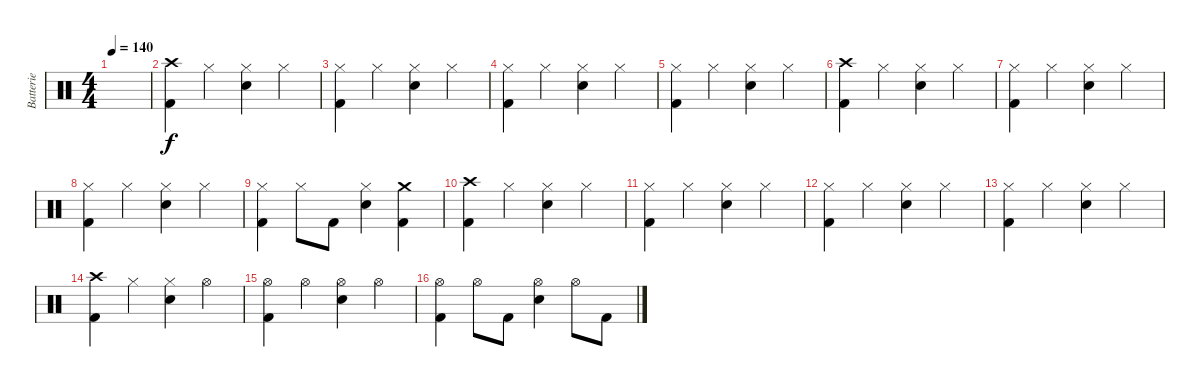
\track ("Batterie" "Batterie") {instrument percussion}
\staff {score}
\articulation defaults
\ts (4 4)
\tempo 140
\clef neutral
\ks c
|
("Crash high (hit)" "Kick (hit) 2").4 "Hi-Hat (closed)".4 ("Hi-Hat (closed)" "Electric Snare (hit)").4 "Hi-Hat (closed)".4 |
("Hi-Hat (closed)" "Kick (hit) 2").4 "Hi-Hat (closed)".4 ("Hi-Hat (closed)" "Electric Snare (hit)").4 "Hi-Hat (closed)".4 |
("Hi-Hat (closed)" "Kick (hit) 2").4 "Hi-Hat (closed)".4 ("Hi-Hat (closed)" "Electric Snare (hit)").4 "Hi-Hat (closed)".4 |
("Hi-Hat (closed)" "Kick (hit) 2").4 "Hi-Hat (closed)".4 ("Hi-Hat (closed)" "Electric Snare (hit)").4 "Hi-Hat (closed)".4 |
("Crash high (hit)" "Kick (hit) 2").4 "Hi-Hat (closed)".4 ("Hi-Hat (closed)" "Electric Snare (hit)").4 "Hi-Hat (closed)".4 |
("Hi-Hat (closed)" "Kick (hit) 2").4 "Hi-Hat (closed)".4 ("Hi-Hat (closed)" "Electric Snare (hit)").4 "Hi-Hat (closed)".4 |
("Hi-Hat (closed)" "Kick (hit) 2").4 "Hi-Hat (closed)".4 ("Hi-Hat (closed)" "Electric Snare (hit)").4 "Hi-Hat (closed)".4 |
("Hi-Hat (closed)" "Kick (hit) 2").4 "Hi-Hat (closed)".8 "Kick (hit) 2".8 ("Hi-Hat (closed)" "Electric Snare (hit)").4 ("Crash medium (hit)" "Kick (hit) 2").4 |
("Crash high (hit)" "Kick (hit) 2").4 "Hi-Hat (closed)".4 ("Hi-Hat (closed)" "Electric Snare (hit)").4 "Hi-Hat (closed)".4 |
("Hi-Hat (closed)" "Kick (hit) 2").4 "Hi-Hat (closed)".4 ("Hi-Hat (closed)" "Electric Snare (hit)").4 "Hi-Hat (closed)".4 |
("Hi-Hat (closed)" "Kick (hit) 2").4 "Hi-Hat (closed)".4 ("Hi-Hat (closed)" "Electric Snare (hit)").4 "Hi-Hat (closed)".4 |
("Hi-Hat (closed)" "Kick (hit) 2").4 "Hi-Hat (closed)".4 ("Hi-Hat (closed)" "Electric Snare (hit)").4 "Hi-Hat (closed)".4 |
("Crash high (hit)" "Kick (hit) 2").4 "Hi-Hat (closed)".4 ("Hi-Hat (closed)" "Electric Snare (hit)").4 "Hi-Hat (open)".4 |
("Hi-Hat (open)" "Kick (hit) 2").4 "Hi-Hat (open)".4 ("Hi-Hat (open)" "Electric Snare (hit)").4 "Hi-Hat (open)".4 |
("Hi-Hat (open)" "Kick (hit) 2").4 "Hi-Hat (open)".8 "Kick (hit) 2".8 ("Hi-Hat (open)" "Electric Snare (hit)").4 "Hi-Hat (open)".8 "Kick (hit) 2".8
